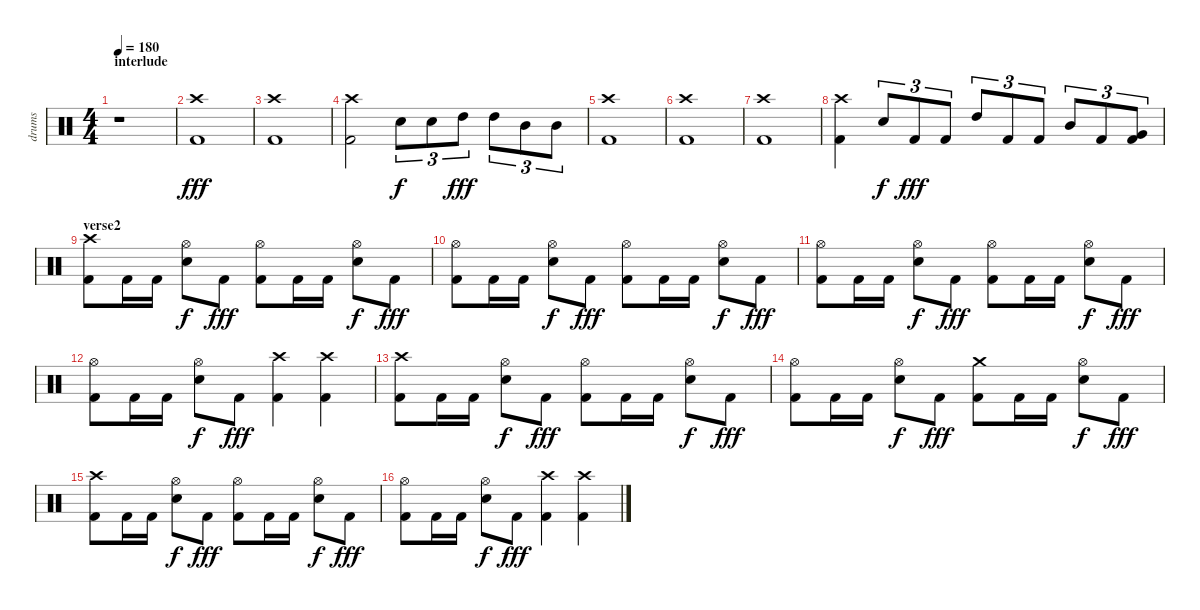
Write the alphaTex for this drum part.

\track ("drums" "drums") {instrument percussion}
\staff {score}
\articulation defaults
\ts (4 4)
\section ("" "interlude")
\tempo 180
\clef neutral
\ks c
r.1{dy fff} |
("Crash high (hit)" "Kick (hit) 2").1 |
("Crash high (hit)" "Kick (hit) 2").1 |
("Crash high (hit)" "Kick (hit) 2").2 "Snare (hit) 2".8{tu (3 2) dy f} "Snare (hit) 2".8{tu (3 2)} "High Tom (hit)".8{tu (3 2) dy fff} "High Tom (hit)".8{tu (3 2)} "Mid Tom (hit)".8{tu (3 2)} "Mid Tom (hit)".8{tu (3 2)} |
("Crash high (hit)" "Kick (hit) 2").1 |
("Crash high (hit)" "Kick (hit) 2").1 |
("Crash high (hit)" "Kick (hit) 2").1 |
("Crash high (hit)" "Kick (hit) 2").4 "Snare (hit) 2".8{tu (3 2) dy f} "Kick (hit) 2".8{tu (3 2) dy fff} "Kick (hit) 2".8{tu (3 2)} "High Tom (hit)".8{tu (3 2)} "Kick (hit) 2".8{tu (3 2)} "Kick (hit) 2".8{tu (3 2)} "Mid Tom (hit)".8{tu (3 2)} "Kick (hit) 2".8{tu (3 2)} ("Very Low Tom (hit)" "Kick (hit) 2").8{tu (3 2)} |
\section ("" "verse2")
("Crash high (hit)" "Kick (hit) 2").8 "Kick (hit) 2".16 "Kick (hit) 2".16 ("Hi-Hat (open)" "Snare (hit) 2").8{dy f} "Kick (hit) 2".8{dy fff} ("Hi-Hat (open)" "Kick (hit) 2").8 "Kick (hit) 2".16 "Kick (hit) 2".16 ("Hi-Hat (open)" "Snare (hit) 2").8{dy f} "Kick (hit) 2".8{dy fff} |
("Hi-Hat (open)" "Kick (hit) 2").8 "Kick (hit) 2".16 "Kick (hit) 2".16 ("Hi-Hat (open)" "Snare (hit) 2").8{dy f} "Kick (hit) 2".8{dy fff} ("Hi-Hat (open)" "Kick (hit) 2").8 "Kick (hit) 2".16 "Kick (hit) 2".16 ("Hi-Hat (open)" "Snare (hit) 2").8{dy f} "Kick (hit) 2".8{dy fff} |
("Hi-Hat (open)" "Kick (hit) 2").8 "Kick (hit) 2".16 "Kick (hit) 2".16 ("Hi-Hat (open)" "Snare (hit) 2").8{dy f} "Kick (hit) 2".8{dy fff} ("Hi-Hat (open)" "Kick (hit) 2").8 "Kick (hit) 2".16 "Kick (hit) 2".16 ("Hi-Hat (open)" "Snare (hit) 2").8{dy f} "Kick (hit) 2".8{dy fff} |
("Hi-Hat (open)" "Kick (hit) 2").8 "Kick (hit) 2".16 "Kick (hit) 2".16 ("Hi-Hat (open)" "Snare (hit) 2").8{dy f} "Kick (hit) 2".8{dy fff} ("Crash high (hit)" "Kick (hit) 2").4 ("Crash high (hit)" "Kick (hit) 2").4 |
("Crash high (hit)" "Kick (hit) 2").8 "Kick (hit) 2".16 "Kick (hit) 2".16 ("Hi-Hat (open)" "Snare (hit) 2").8{dy f} "Kick (hit) 2".8{dy fff} ("Hi-Hat (open)" "Kick (hit) 2").8 "Kick (hit) 2".16 "Kick (hit) 2".16 ("Hi-Hat (open)" "Snare (hit) 2").8{dy f} "Kick (hit) 2".8{dy fff} |
("Hi-Hat (open)" "Kick (hit) 2").8 "Kick (hit) 2".16 "Kick (hit) 2".16 ("Hi-Hat (open)" "Snare (hit) 2").8{dy f} "Kick (hit) 2".8{dy fff} ("Crash medium (hit)" "Kick (hit) 2").8 "Kick (hit) 2".16 "Kick (hit) 2".16 ("Hi-Hat (open)" "Snare (hit) 2").8{dy f} "Kick (hit) 2".8{dy fff} |
("Crash high (hit)" "Kick (hit) 2").8 "Kick (hit) 2".16 "Kick (hit) 2".16 ("Hi-Hat (open)" "Snare (hit) 2").8{dy f} "Kick (hit) 2".8{dy fff} ("Hi-Hat (open)" "Kick (hit) 2").8 "Kick (hit) 2".16 "Kick (hit) 2".16 ("Hi-Hat (open)" "Snare (hit) 2").8{dy f} "Kick (hit) 2".8{dy fff} |
("Hi-Hat (open)" "Kick (hit) 2").8 "Kick (hit) 2".16 "Kick (hit) 2".16 ("Hi-Hat (open)" "Snare (hit) 2").8{dy f} "Kick (hit) 2".8{dy fff} ("Crash high (hit)" "Kick (hit) 2").4 ("Crash high (hit)" "Kick (hit) 2").4
